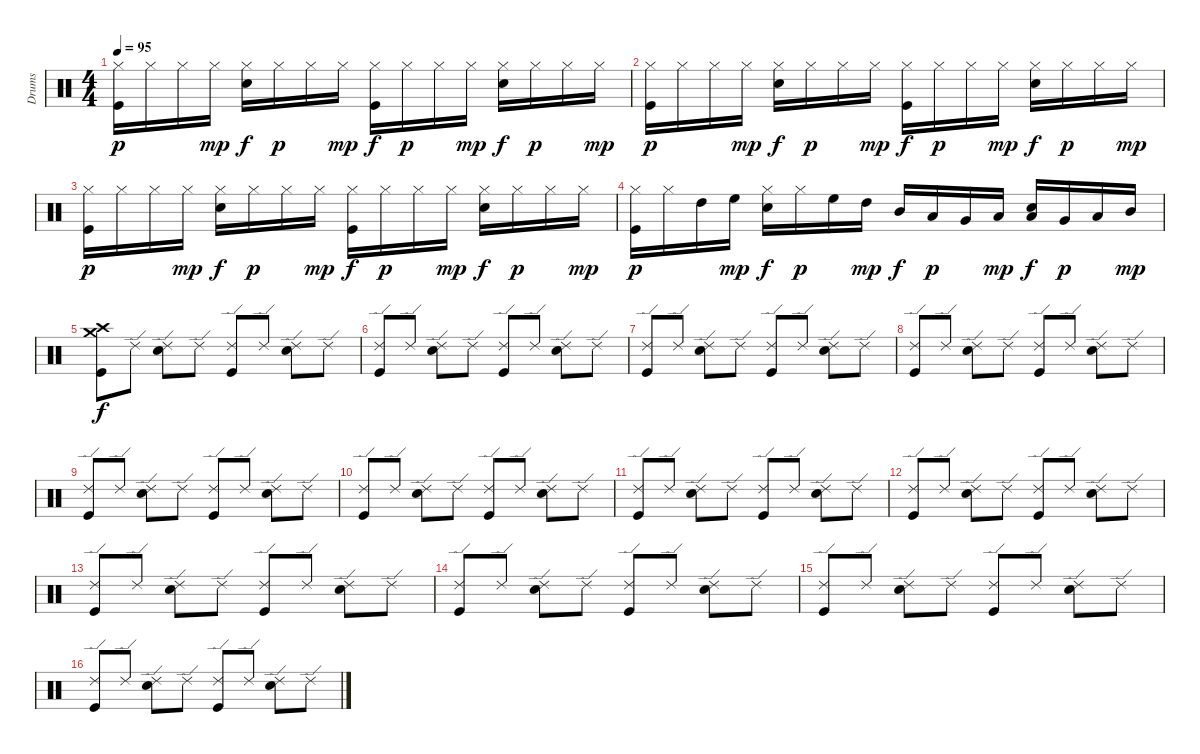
\track ("Drums" "Drums") {instrument percussion}
\staff {score}
\articulation defaults
\ts (4 4)
\tempo 95
\clef neutral
\ks c
("Hi-Hat (closed)" "Kick (hit)").16{dy p} "Hi-Hat (closed)".16 "Hi-Hat (closed)".16 "Hi-Hat (closed)".16{dy mp} ("Hi-Hat (closed)" "Snare (hit) 2").16{dy f} "Hi-Hat (closed)".16{dy p} "Hi-Hat (closed)".16 "Hi-Hat (closed)".16{dy mp} ("Hi-Hat (closed)" "Kick (hit)").16{dy f} "Hi-Hat (closed)".16{dy p} "Hi-Hat (closed)".16 "Hi-Hat (closed)".16{dy mp} ("Hi-Hat (closed)" "Snare (hit) 2").16{dy f} "Hi-Hat (closed)".16{dy p} "Hi-Hat (closed)".16 "Hi-Hat (closed)".16{dy mp} |
("Hi-Hat (closed)" "Kick (hit)").16{dy p} "Hi-Hat (closed)".16 "Hi-Hat (closed)".16 "Hi-Hat (closed)".16{dy mp} ("Hi-Hat (closed)" "Snare (hit) 2").16{dy f} "Hi-Hat (closed)".16{dy p} "Hi-Hat (closed)".16 "Hi-Hat (closed)".16{dy mp} ("Hi-Hat (closed)" "Kick (hit)").16{dy f} "Hi-Hat (closed)".16{dy p} "Hi-Hat (closed)".16 "Hi-Hat (closed)".16{dy mp} ("Hi-Hat (closed)" "Snare (hit) 2").16{dy f} "Hi-Hat (closed)".16{dy p} "Hi-Hat (closed)".16 "Hi-Hat (closed)".16{dy mp} |
("Hi-Hat (closed)" "Kick (hit)").16{dy p} "Hi-Hat (closed)".16 "Hi-Hat (closed)".16 "Hi-Hat (closed)".16{dy mp} ("Hi-Hat (closed)" "Snare (hit) 2").16{dy f} "Hi-Hat (closed)".16{dy p} "Hi-Hat (closed)".16 "Hi-Hat (closed)".16{dy mp} ("Hi-Hat (closed)" "Kick (hit)").16{dy f} "Hi-Hat (closed)".16{dy p} "Hi-Hat (closed)".16 "Hi-Hat (closed)".16{dy mp} ("Hi-Hat (closed)" "Snare (hit) 2").16{dy f} "Hi-Hat (closed)".16{dy p} "Hi-Hat (closed)".16 "Hi-Hat (closed)".16{dy mp} |
("Hi-Hat (closed)" "Kick (hit)").16{dy p} "Hi-Hat (closed)".16 "High Tom (hit)".16 "High Floor Tom (hit)".16{dy mp} ("Hi-Hat (closed)" "Snare (hit) 2").16{dy f} "Hi-Hat (closed)".16{dy p} "High Floor Tom (hit)".16 "High Tom (hit)".16{dy mp} "Mid Tom (hit)".16{dy f} "Low Tom (hit)".16{dy p} "Very Low Tom (hit)".16 "Low Floor Tom (hit)".16{dy mp} ("Low Floor Tom (hit)" "Snare (hit) 2").16{dy f} "Very Low Tom (hit)".16{dy p} "Low Tom (hit)".16 "Mid Tom (hit)".16{dy mp} |
("Crash medium (hit)" "Crash high (hit)" "Kick (hit)").8{dy f} "Ride (edge) 2".8 ("Ride (edge) 2" "Electric Snare (hit)").8 "Ride (edge) 2".8 ("Ride (edge) 2" "Kick (hit)").8 "Ride (edge) 2".8 ("Ride (edge) 2" "Electric Snare (hit)").8 "Ride (edge) 2".8 |
("Ride (edge) 2" "Kick (hit)").8 "Ride (edge) 2".8 ("Ride (edge) 2" "Electric Snare (hit)").8 "Ride (edge) 2".8 ("Ride (edge) 2" "Kick (hit)").8 "Ride (edge) 2".8 ("Ride (edge) 2" "Electric Snare (hit)").8 "Ride (edge) 2".8 |
("Ride (edge) 2" "Kick (hit)").8 "Ride (edge) 2".8 ("Ride (edge) 2" "Electric Snare (hit)").8 "Ride (edge) 2".8 ("Ride (edge) 2" "Kick (hit)").8 "Ride (edge) 2".8 ("Ride (edge) 2" "Electric Snare (hit)").8 "Ride (edge) 2".8 |
("Ride (edge) 2" "Kick (hit)").8 "Ride (edge) 2".8 ("Ride (edge) 2" "Electric Snare (hit)").8 "Ride (edge) 2".8 ("Ride (edge) 2" "Kick (hit)").8 "Ride (edge) 2".8 ("Ride (edge) 2" "Electric Snare (hit)").8 "Ride (edge) 2".8 |
("Ride (edge) 2" "Kick (hit)").8 "Ride (edge) 2".8 ("Ride (edge) 2" "Electric Snare (hit)").8 "Ride (edge) 2".8 ("Ride (edge) 2" "Kick (hit)").8 "Ride (edge) 2".8 ("Ride (edge) 2" "Electric Snare (hit)").8 "Ride (edge) 2".8 |
("Ride (edge) 2" "Kick (hit)").8 "Ride (edge) 2".8 ("Ride (edge) 2" "Electric Snare (hit)").8 "Ride (edge) 2".8 ("Ride (edge) 2" "Kick (hit)").8 "Ride (edge) 2".8 ("Ride (edge) 2" "Electric Snare (hit)").8 "Ride (edge) 2".8 |
("Ride (edge) 2" "Kick (hit)").8 "Ride (edge) 2".8 ("Ride (edge) 2" "Electric Snare (hit)").8 "Ride (edge) 2".8 ("Ride (edge) 2" "Kick (hit)").8 "Ride (edge) 2".8 ("Ride (edge) 2" "Electric Snare (hit)").8 "Ride (edge) 2".8 |
("Ride (edge) 2" "Kick (hit)").8 "Ride (edge) 2".8 ("Ride (edge) 2" "Electric Snare (hit)").8 "Ride (edge) 2".8 ("Ride (edge) 2" "Kick (hit)").8 "Ride (edge) 2".8 ("Ride (edge) 2" "Electric Snare (hit)").8 "Ride (edge) 2".8 |
("Ride (edge) 2" "Kick (hit)").8 "Ride (edge) 2".8 ("Ride (edge) 2" "Electric Snare (hit)").8 "Ride (edge) 2".8 ("Ride (edge) 2" "Kick (hit)").8 "Ride (edge) 2".8 ("Ride (edge) 2" "Electric Snare (hit)").8 "Ride (edge) 2".8 |
("Ride (edge) 2" "Kick (hit)").8 "Ride (edge) 2".8 ("Ride (edge) 2" "Electric Snare (hit)").8 "Ride (edge) 2".8 ("Ride (edge) 2" "Kick (hit)").8 "Ride (edge) 2".8 ("Ride (edge) 2" "Electric Snare (hit)").8 "Ride (edge) 2".8 |
("Ride (edge) 2" "Kick (hit)").8 "Ride (edge) 2".8 ("Ride (edge) 2" "Electric Snare (hit)").8 "Ride (edge) 2".8 ("Ride (edge) 2" "Kick (hit)").8 "Ride (edge) 2".8 ("Ride (edge) 2" "Electric Snare (hit)").8 "Ride (edge) 2".8 |
("Ride (edge) 2" "Kick (hit)").8 "Ride (edge) 2".8 ("Ride (edge) 2" "Electric Snare (hit)").8 "Ride (edge) 2".8 ("Ride (edge) 2" "Kick (hit)").8 "Ride (edge) 2".8 ("Ride (edge) 2" "Electric Snare (hit)").8 "Ride (edge) 2".8
